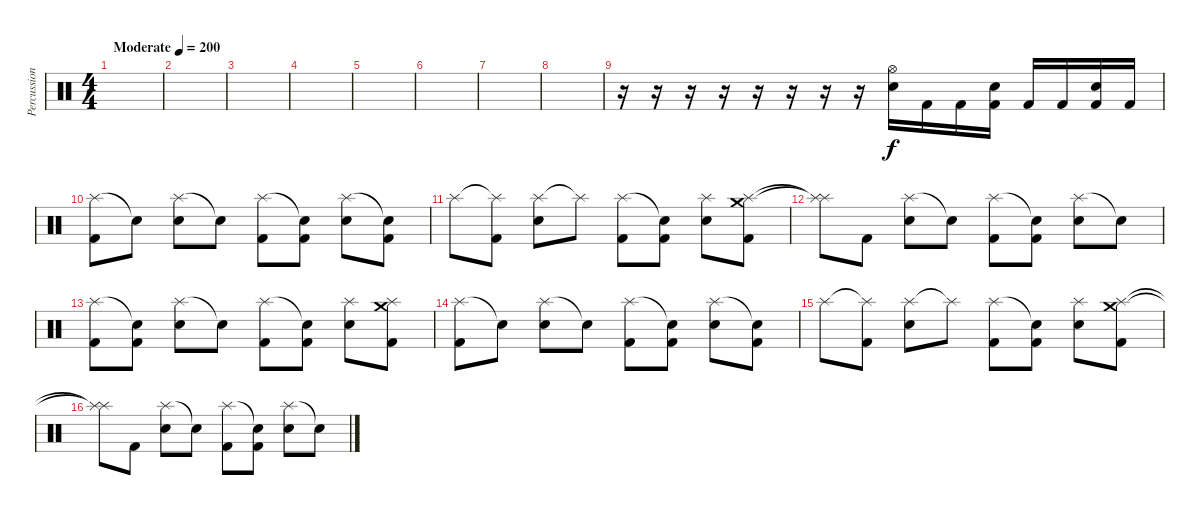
\track ("Percussion" "Percussion") {instrument percussion}
\staff {score}
\articulation defaults
\ts (4 4)
\tempo (200 "Moderate")
\clef neutral
\ks c
|
|
|
|
|
|
|
|
r.16 r.16 r.16 r.16 r.16 r.16 r.16 r.16 ("Hi-Hat (open)" "Electric Snare (hit)").16 "Kick (hit) 2".16 "Kick (hit) 2".16 ("Electric Snare (hit)" "Kick (hit) 2").16 "Kick (hit) 2".16 "Kick (hit) 2".16 ("Electric Snare (hit)" "Kick (hit) 2").16 "Kick (hit) 2".16 |
("Splash (hit)" "Kick (hit) 2").8 "Snare (hit)"{t}.8 ("Splash (hit)" "Electric Snare (hit)").8 "Snare (hit)"{t}.8 ("Splash (hit)" "Kick (hit) 2").8 ("Snare (hit)"{t} "Kick (hit) 2").8 ("Splash (hit)" "Electric Snare (hit)").8 ("Snare (hit)"{t} "Kick (hit) 2").8 |
"Splash (hit)".8 ("Splash (hit)"{t} "Kick (hit) 2").8 ("Splash (hit)" "Electric Snare (hit)").8 "Splash (hit)"{t}.8 ("Splash (hit)" "Kick (hit) 2").8 ("Snare (hit)"{t} "Kick (hit) 2").8 ("Splash (hit)" "Electric Snare (hit)").8 ("Crash medium (hit)" "Splash (hit)" "Kick (hit) 2").8 |
("Splash (hit)"{t} "Splash (hit)"{t}).8 "Kick (hit) 2".8 ("Splash (hit)" "Electric Snare (hit)").8 "Snare (hit)"{t}.8 ("Splash (hit)" "Kick (hit) 2").8 ("Snare (hit)"{t} "Kick (hit) 2").8 ("Splash (hit)" "Electric Snare (hit)").8 "Snare (hit)"{t}.8 |
("Splash (hit)" "Kick (hit) 2").8 ("Snare (hit)"{t} "Kick (hit) 2").8 ("Splash (hit)" "Electric Snare (hit)").8 "Snare (hit)"{t}.8 ("Splash (hit)" "Kick (hit) 2").8 ("Snare (hit)"{t} "Kick (hit) 2").8 ("Splash (hit)" "Electric Snare (hit)").8 ("Crash medium (hit)" "Splash (hit)" "Kick (hit) 2").8 |
("Splash (hit)" "Kick (hit) 2").8 "Snare (hit)"{t}.8 ("Splash (hit)" "Electric Snare (hit)").8 "Snare (hit)"{t}.8 ("Splash (hit)" "Kick (hit) 2").8 ("Snare (hit)"{t} "Kick (hit) 2").8 ("Splash (hit)" "Electric Snare (hit)").8 ("Snare (hit)"{t} "Kick (hit) 2").8 |
"Splash (hit)".8 ("Splash (hit)"{t} "Kick (hit) 2").8 ("Splash (hit)" "Electric Snare (hit)").8 "Splash (hit)"{t}.8 ("Splash (hit)" "Kick (hit) 2").8 ("Snare (hit)"{t} "Kick (hit) 2").8 ("Splash (hit)" "Electric Snare (hit)").8 ("Crash medium (hit)" "Splash (hit)" "Kick (hit) 2").8 |
("Splash (hit)"{t} "Splash (hit)"{t}).8 "Kick (hit) 2".8 ("Splash (hit)" "Electric Snare (hit)").8 "Snare (hit)"{t}.8 ("Splash (hit)" "Kick (hit) 2").8 ("Snare (hit)"{t} "Kick (hit) 2").8 ("Splash (hit)" "Electric Snare (hit)").8 "Snare (hit)"{t}.8
